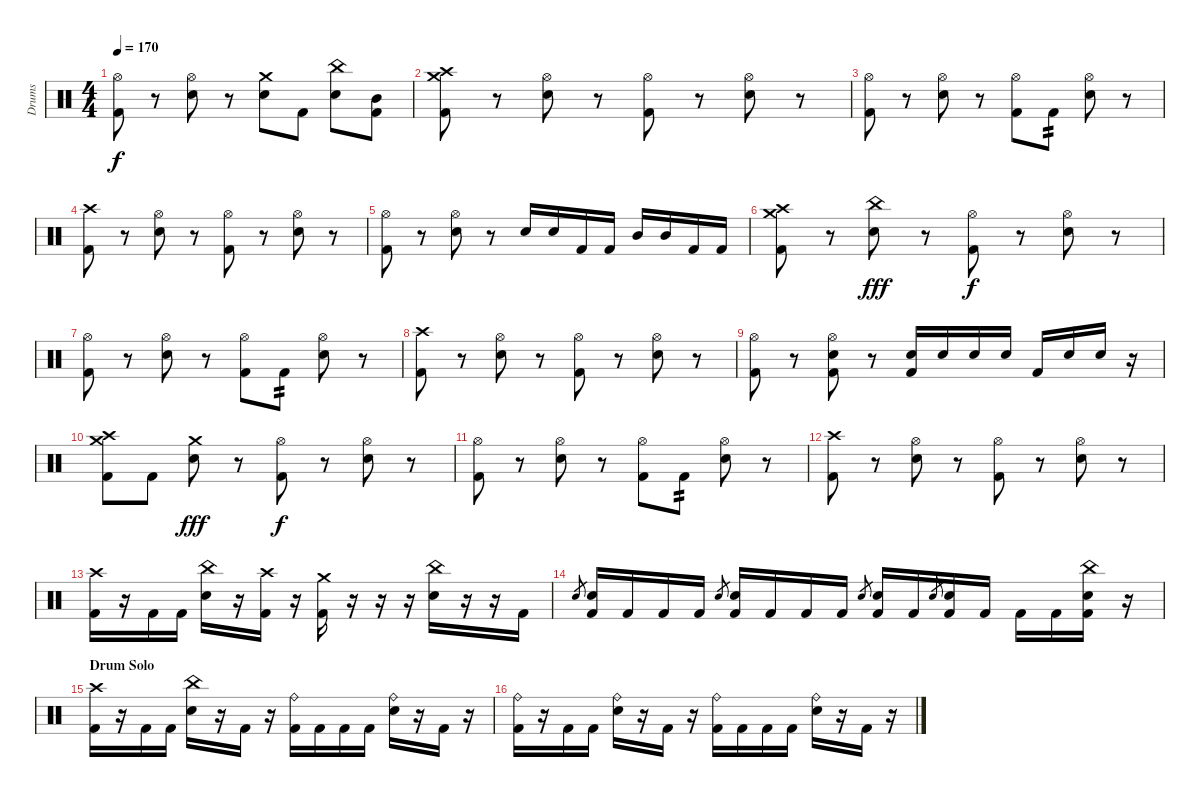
\track ("Drums" "Drums") {instrument percussion}
\staff {score}
\articulation defaults
\ts (4 4)
\tempo 170
\clef neutral
\ks c
("Hi-Hat (open)" "Kick (hit) 2").8{dy f} r.8 ("Hi-Hat (open)" "Electric Snare (hit)").8 r.8 ("Crash medium (hit)" "Electric Snare (hit)").8 "Kick (hit) 2".8 ("China (hit)" "Electric Snare (hit)").8 ("Mid Tom (hit)" "Kick (hit) 2").8 |
("Crash high (hit)" "Crash medium (hit)" "Kick (hit) 2").8 r.8 ("Hi-Hat (open)" "Electric Snare (hit)").8 r.8 ("Hi-Hat (open)" "Kick (hit) 2").8 r.8 ("Hi-Hat (open)" "Electric Snare (hit)").8 r.8 |
("Hi-Hat (open)" "Kick (hit) 2").8 r.8 ("Hi-Hat (open)" "Electric Snare (hit)").8 r.8 ("Hi-Hat (open)" "Kick (hit) 2").8 "Kick (hit) 2".8{tp 2} ("Hi-Hat (open)" "Electric Snare (hit)").8 r.8 |
("Crash high (hit)" "Kick (hit) 2").8 r.8 ("Hi-Hat (open)" "Electric Snare (hit)").8 r.8 ("Hi-Hat (open)" "Kick (hit) 2").8 r.8 ("Hi-Hat (open)" "Electric Snare (hit)").8 r.8 |
("Hi-Hat (open)" "Kick (hit) 2").8 r.8 ("Hi-Hat (open)" "Electric Snare (hit)").8 r.8 "Electric Snare (hit)".16 "Electric Snare (hit)".16 "Kick (hit) 2".16 "Kick (hit) 2".16 "Mid Tom (hit)".16 "Mid Tom (hit)".16 "Kick (hit) 2".16 "Kick (hit) 2".16 |
("Crash high (hit)" "Crash medium (hit)" "Kick (hit) 2").8 r.8 ("China (hit)" "Electric Snare (hit)").8{dy fff} r.8 ("Hi-Hat (open)" "Kick (hit) 2").8{dy f} r.8 ("Hi-Hat (open)" "Electric Snare (hit)").8 r.8 |
("Hi-Hat (open)" "Kick (hit) 2").8 r.8 ("Hi-Hat (open)" "Electric Snare (hit)").8 r.8 ("Hi-Hat (open)" "Kick (hit) 2").8 "Kick (hit) 2".8{tp 2} ("Hi-Hat (open)" "Electric Snare (hit)").8 r.8 |
("Crash high (hit)" "Kick (hit) 2").8 r.8 ("Hi-Hat (open)" "Electric Snare (hit)").8 r.8 ("Hi-Hat (open)" "Kick (hit) 2").8 r.8 ("Hi-Hat (open)" "Electric Snare (hit)").8 r.8 |
("Hi-Hat (open)" "Kick (hit) 2").8 r.8 ("Hi-Hat (open)" "Electric Snare (hit)" "Kick (hit) 2").8 r.8 ("Electric Snare (hit)" "Kick (hit) 2").16 "Electric Snare (hit)".16 "Electric Snare (hit)".16 "Electric Snare (hit)".16 "Kick (hit) 2".16 "Electric Snare (hit)".16 "Electric Snare (hit)".16 r.16 |
("Crash high (hit)" "Crash medium (hit)" "Kick (hit) 2").8 "Kick (hit) 2".8 ("Crash medium (hit)" "Electric Snare (hit)").8{dy fff} r.8 ("Hi-Hat (open)" "Kick (hit) 2").8{dy f} r.8 ("Hi-Hat (open)" "Electric Snare (hit)").8 r.8 |
("Hi-Hat (open)" "Kick (hit) 2").8 r.8 ("Hi-Hat (open)" "Electric Snare (hit)").8 r.8 ("Hi-Hat (open)" "Kick (hit) 2").8 "Kick (hit) 2".8{tp 2} ("Hi-Hat (open)" "Electric Snare (hit)").8 r.8 |
("Crash high (hit)" "Kick (hit) 2").8 r.8 ("Hi-Hat (open)" "Electric Snare (hit)").8 r.8 ("Hi-Hat (open)" "Kick (hit) 2").8 r.8 ("Hi-Hat (open)" "Electric Snare (hit)").8 r.8 |
("Crash high (hit)" "Kick (hit) 2").16 r.16 "Kick (hit) 2".16 "Kick (hit) 2".16 ("China (hit)" "Electric Snare (hit)").16 r.16 ("Crash high (hit)" "Kick (hit) 2").16 r.16 ("Crash medium (hit)" "Kick (hit) 2").16 r.16 r.16 r.16 ("China (hit)" "Electric Snare (hit)").16 r.16 r.16 "Kick (hit) 2".16 |
"Electric Snare (hit)".8{gr} ("Electric Snare (hit)" "Kick (hit) 2").16 "Kick (hit) 2".16 "Kick (hit) 2".16 "Kick (hit) 2".16 "Electric Snare (hit)".8{gr} ("Electric Snare (hit)" "Kick (hit) 2").16 "Kick (hit) 2".16 "Kick (hit) 2".16 "Kick (hit) 2".16 "Electric Snare (hit)".8{gr} ("Electric Snare (hit)" "Kick (hit) 2").16 "Kick (hit) 2".16 "Electric Snare (hit)".8{gr} ("Electric Snare (hit)" "Kick (hit) 2").16 "Kick (hit) 2".16 "Kick (hit) 2".16 "Kick (hit) 2".16 ("China (hit)" "Electric Snare (hit)" "Kick (hit) 2").16 r.16 |
\section ("" "Drum Solo")
("Crash high (hit)" "Kick (hit) 2").16 r.16 "Kick (hit) 2".16 "Kick (hit) 2".16 ("China (hit)" "Electric Snare (hit)").16 r.16 "Kick (hit) 2".16 r.16 ("Ride (bell)" "Kick (hit) 2").16 "Kick (hit) 2".16 "Kick (hit) 2".16 "Kick (hit) 2".16 ("Ride (bell)" "Electric Snare (hit)").16 r.16 "Kick (hit) 2".16 r.16 |
("Ride (bell)" "Kick (hit) 2").16 r.16 "Kick (hit) 2".16 "Kick (hit) 2".16 ("Ride (bell)" "Electric Snare (hit)").16 r.16 "Kick (hit) 2".16 r.16 ("Ride (bell)" "Kick (hit) 2").16 "Kick (hit) 2".16 "Kick (hit) 2".16 "Kick (hit) 2".16 ("Ride (bell)" "Electric Snare (hit)").16 r.16 "Kick (hit) 2".16 r.16
